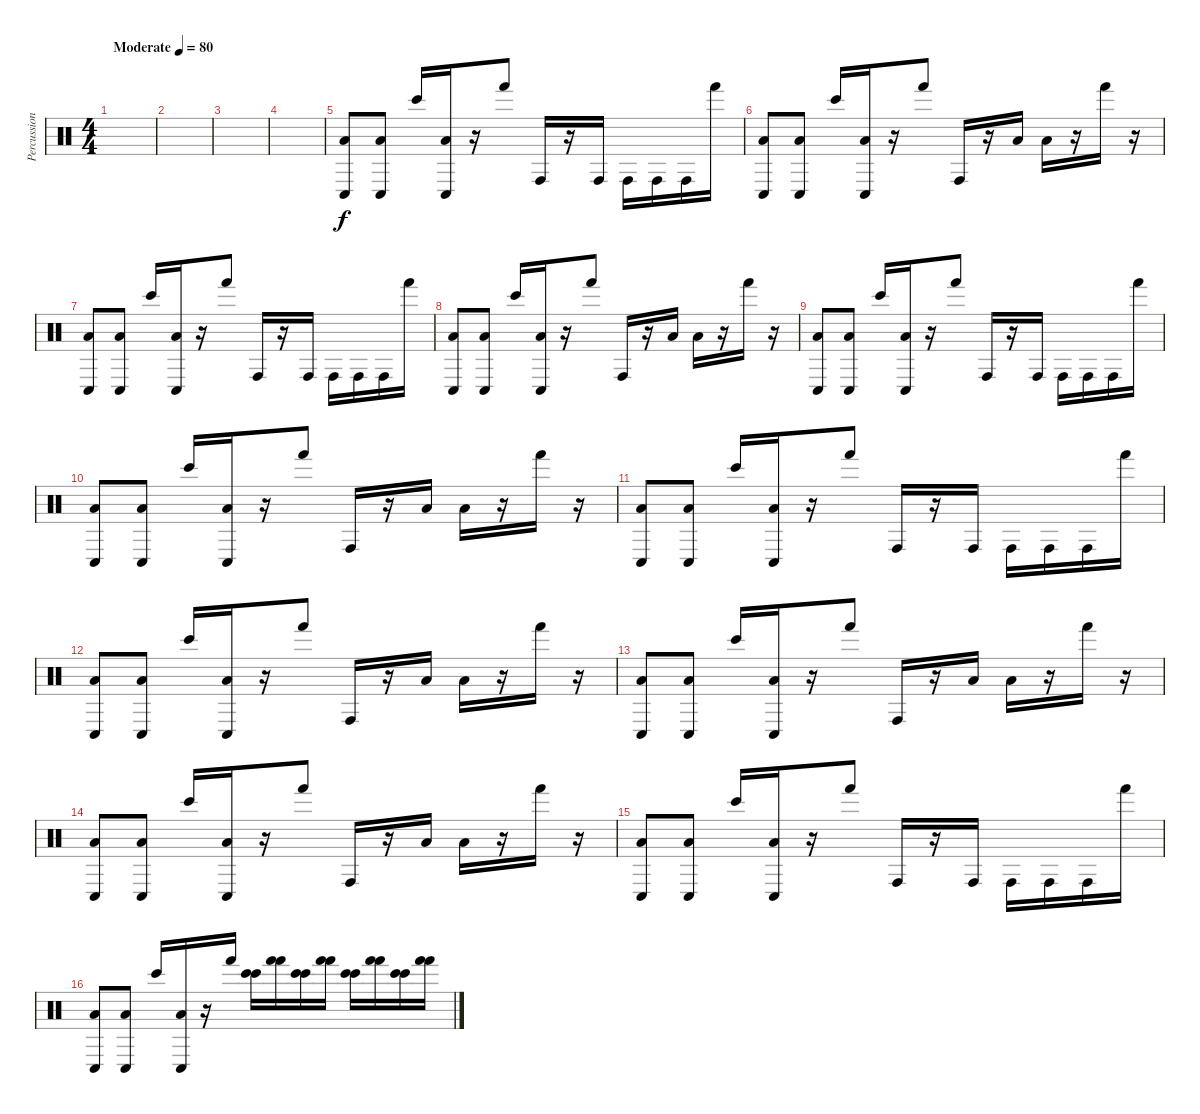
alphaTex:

\track ("Percussion" "Percussion") {instrument percussion}
\staff {score}
\articulation defaults
\ts (4 4)
\tempo (80 "Moderate")
\clef neutral
\ks c
|
|
|
|
("Low Tom (hit)" "Conga low (hit)").8 ("Low Tom (hit)" "Conga low (hit)").8 "Bongo High (hit)".16 ("Low Tom (hit)" "Conga low (hit)").16 r.16 "Hand (hit)".8 "Conga high (hit)".16 r.16 "Conga high (hit)".16 "Conga high (hit)".16 "Conga high (hit)".16 "Conga high (hit)".16 "Hand (hit)".16 |
("Low Tom (hit)" "Conga low (hit)").8 ("Low Tom (hit)" "Conga low (hit)").8 "Bongo High (hit)".16 ("Low Tom (hit)" "Conga low (hit)").16 r.16 "Hand (hit)".8 "Conga high (hit)".16 r.16 "Low Tom (hit)".16 "Low Tom (hit)".16 r.16 "Hand (hit)".16 r.16 |
("Low Tom (hit)" "Conga low (hit)").8 ("Low Tom (hit)" "Conga low (hit)").8 "Bongo High (hit)".16 ("Low Tom (hit)" "Conga low (hit)").16 r.16 "Hand (hit)".8 "Conga high (hit)".16 r.16 "Conga high (hit)".16 "Conga high (hit)".16 "Conga high (hit)".16 "Conga high (hit)".16 "Hand (hit)".16 |
("Low Tom (hit)" "Conga low (hit)").8 ("Low Tom (hit)" "Conga low (hit)").8 "Bongo High (hit)".16 ("Low Tom (hit)" "Conga low (hit)").16 r.16 "Hand (hit)".8 "Conga high (hit)".16 r.16 "Low Tom (hit)".16 "Low Tom (hit)".16 r.16 "Hand (hit)".16 r.16 |
("Low Tom (hit)" "Conga low (hit)").8 ("Low Tom (hit)" "Conga low (hit)").8 "Bongo High (hit)".16 ("Low Tom (hit)" "Conga low (hit)").16 r.16 "Hand (hit)".8 "Conga high (hit)".16 r.16 "Conga high (hit)".16 "Conga high (hit)".16 "Conga high (hit)".16 "Conga high (hit)".16 "Hand (hit)".16 |
("Low Tom (hit)" "Conga low (hit)").8 ("Low Tom (hit)" "Conga low (hit)").8 "Bongo High (hit)".16 ("Low Tom (hit)" "Conga low (hit)").16 r.16 "Hand (hit)".8 "Conga high (hit)".16 r.16 "Low Tom (hit)".16 "Low Tom (hit)".16 r.16 "Hand (hit)".16 r.16 |
("Low Tom (hit)" "Conga low (hit)").8 ("Low Tom (hit)" "Conga low (hit)").8 "Bongo High (hit)".16 ("Low Tom (hit)" "Conga low (hit)").16 r.16 "Hand (hit)".8 "Conga high (hit)".16 r.16 "Conga high (hit)".16 "Conga high (hit)".16 "Conga high (hit)".16 "Conga high (hit)".16 "Hand (hit)".16 |
("Low Tom (hit)" "Conga low (hit)").8 ("Low Tom (hit)" "Conga low (hit)").8 "Bongo High (hit)".16 ("Low Tom (hit)" "Conga low (hit)").16 r.16 "Hand (hit)".8 "Conga high (hit)".16 r.16 "Low Tom (hit)".16 "Low Tom (hit)".16 r.16 "Hand (hit)".16 r.16 |
("Low Tom (hit)" "Conga low (hit)").8 ("Low Tom (hit)" "Conga low (hit)").8 "Bongo High (hit)".16 ("Low Tom (hit)" "Conga low (hit)").16 r.16 "Hand (hit)".8 "Conga high (hit)".16 r.16 "Low Tom (hit)".16 "Low Tom (hit)".16 r.16 "Hand (hit)".16 r.16 |
("Low Tom (hit)" "Conga low (hit)").8 ("Low Tom (hit)" "Conga low (hit)").8 "Bongo High (hit)".16 ("Low Tom (hit)" "Conga low (hit)").16 r.16 "Hand (hit)".8 "Conga high (hit)".16 r.16 "Low Tom (hit)".16 "Low Tom (hit)".16 r.16 "Hand (hit)".16 r.16 |
("Low Tom (hit)" "Conga low (hit)").8 ("Low Tom (hit)" "Conga low (hit)").8 "Bongo High (hit)".16 ("Low Tom (hit)" "Conga low (hit)").16 r.16 "Hand (hit)".8 "Conga high (hit)".16 r.16 "Conga high (hit)".16 "Conga high (hit)".16 "Conga high (hit)".16 "Conga high (hit)".16 "Hand (hit)".16 |
("Low Tom (hit)" "Conga low (hit)").8 ("Low Tom (hit)" "Conga low (hit)").8 "Bongo High (hit)".16 ("Low Tom (hit)" "Conga low (hit)").16 r.16 "Hand (hit)".16 ("Bongo High (hit)" "Bongo High (hit)").16 ("Hand (hit)" "Hand (hit)").16 ("Bongo High (hit)" "Bongo High (hit)").16 ("Hand (hit)" "Hand (hit)").16 ("Bongo High (hit)" "Bongo High (hit)").16 ("Hand (hit)" "Hand (hit)").16 ("Bongo High (hit)" "Bongo High (hit)").16 ("Hand (hit)" "Hand (hit)").16
